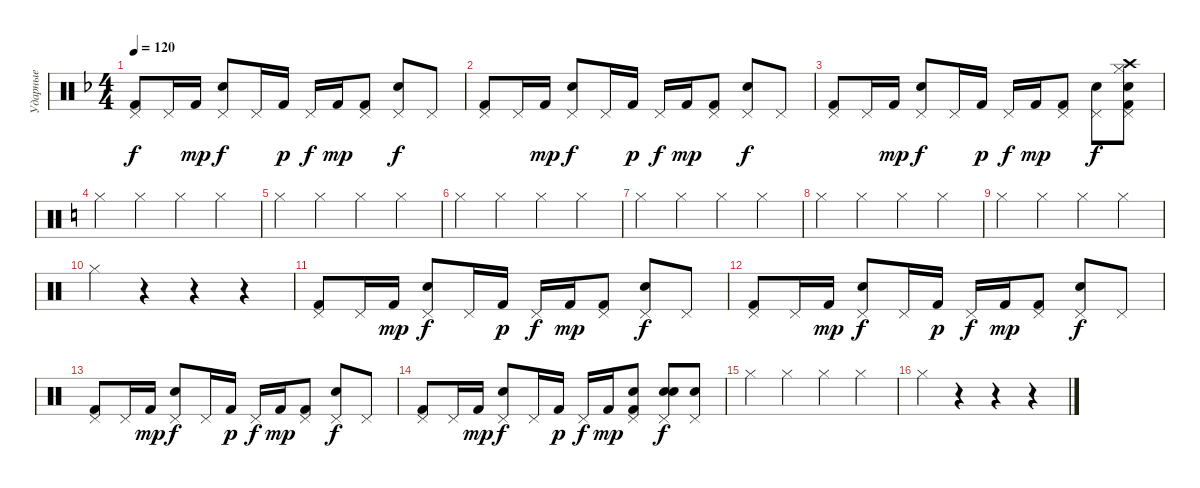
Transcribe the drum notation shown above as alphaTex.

\track ("Ударные" "Ударные") {instrument percussion}
\staff {score}
\articulation defaults
\ts (4 4)
\tempo 120
\clef neutral
\ks dminor
("Pedal Hi-Hat (hit)" "Kick (hit) 2").8{dy f} "Pedal Hi-Hat (hit)".16 "Kick (hit) 2".16{dy mp} ("Pedal Hi-Hat (hit)" "Snare (hit) 2").8{dy f} "Pedal Hi-Hat (hit)".16 "Kick (hit) 2".16{dy p} "Pedal Hi-Hat (hit)".16{dy f} "Kick (hit) 2".16{dy mp} ("Pedal Hi-Hat (hit)" "Kick (hit) 2").8 ("Pedal Hi-Hat (hit)" "Snare (hit) 2").8{dy f} "Pedal Hi-Hat (hit)".8 |
("Pedal Hi-Hat (hit)" "Kick (hit) 2").8 "Pedal Hi-Hat (hit)".16 "Kick (hit) 2".16{dy mp} ("Pedal Hi-Hat (hit)" "Snare (hit) 2").8{dy f} "Pedal Hi-Hat (hit)".16 "Kick (hit) 2".16{dy p} "Pedal Hi-Hat (hit)".16{dy f} "Kick (hit) 2".16{dy mp} ("Pedal Hi-Hat (hit)" "Kick (hit) 2").8 ("Pedal Hi-Hat (hit)" "Snare (hit) 2").8{dy f} "Pedal Hi-Hat (hit)".8 |
("Pedal Hi-Hat (hit)" "Kick (hit) 2").8 "Pedal Hi-Hat (hit)".16 "Kick (hit) 2".16{dy mp} ("Pedal Hi-Hat (hit)" "Snare (hit) 2").8{dy f} "Pedal Hi-Hat (hit)".16 "Kick (hit) 2".16{dy p} "Pedal Hi-Hat (hit)".16{dy f} "Kick (hit) 2".16{dy mp} ("Pedal Hi-Hat (hit)" "Kick (hit) 2").8 ("Pedal Hi-Hat (hit)" "Snare (hit) 2").8{dy f} ("Pedal Hi-Hat (hit)" "Crash high (hit)" "Hi-Hat (closed)" "Snare (hit) 2" "Kick (hit) 2").8 |
\ks c "Hi-Hat (closed)".4 "Hi-Hat (closed)".4 "Hi-Hat (closed)".4 "Hi-Hat (closed)".4
|
"Hi-Hat (closed)".4 "Hi-Hat (closed)".4 "Hi-Hat (closed)".4 "Hi-Hat (closed)".4 |
"Hi-Hat (closed)".4 "Hi-Hat (closed)".4 "Hi-Hat (closed)".4 "Hi-Hat (closed)".4 |
"Hi-Hat (closed)".4 "Hi-Hat (closed)".4 "Hi-Hat (closed)".4 "Hi-Hat (closed)".4 |
"Hi-Hat (closed)".4 "Hi-Hat (closed)".4 "Hi-Hat (closed)".4 "Hi-Hat (closed)".4 |
"Hi-Hat (closed)".4 "Hi-Hat (closed)".4 "Hi-Hat (closed)".4 "Hi-Hat (closed)".4 |
"Hi-Hat (closed)".4 r.4 r.4 r.4 |
("Pedal Hi-Hat (hit)" "Kick (hit) 2").8 "Pedal Hi-Hat (hit)".16 "Kick (hit) 2".16{dy mp} ("Pedal Hi-Hat (hit)" "Snare (hit) 2").8{dy f} "Pedal Hi-Hat (hit)".16 "Kick (hit) 2".16{dy p} "Pedal Hi-Hat (hit)".16{dy f} "Kick (hit) 2".16{dy mp} ("Pedal Hi-Hat (hit)" "Kick (hit) 2").8 ("Pedal Hi-Hat (hit)" "Snare (hit) 2").8{dy f} "Pedal Hi-Hat (hit)".8 |
("Pedal Hi-Hat (hit)" "Kick (hit) 2").8 "Pedal Hi-Hat (hit)".16 "Kick (hit) 2".16{dy mp} ("Pedal Hi-Hat (hit)" "Snare (hit) 2").8{dy f} "Pedal Hi-Hat (hit)".16 "Kick (hit) 2".16{dy p} "Pedal Hi-Hat (hit)".16{dy f} "Kick (hit) 2".16{dy mp} ("Pedal Hi-Hat (hit)" "Kick (hit) 2").8 ("Pedal Hi-Hat (hit)" "Snare (hit) 2").8{dy f} "Pedal Hi-Hat (hit)".8 |
("Pedal Hi-Hat (hit)" "Kick (hit) 2").8 "Pedal Hi-Hat (hit)".16 "Kick (hit) 2".16{dy mp} ("Pedal Hi-Hat (hit)" "Snare (hit) 2").8{dy f} "Pedal Hi-Hat (hit)".16 "Kick (hit) 2".16{dy p} "Pedal Hi-Hat (hit)".16{dy f} "Kick (hit) 2".16{dy mp} ("Pedal Hi-Hat (hit)" "Kick (hit) 2").8 ("Pedal Hi-Hat (hit)" "Snare (hit) 2").8{dy f} "Pedal Hi-Hat (hit)".8 |
("Pedal Hi-Hat (hit)" "Kick (hit) 2").8 "Pedal Hi-Hat (hit)".16 "Kick (hit) 2".16{dy mp} ("Pedal Hi-Hat (hit)" "Snare (hit) 2").8{dy f} "Pedal Hi-Hat (hit)".16 "Kick (hit) 2".16{dy p} "Pedal Hi-Hat (hit)".16{dy f} "Kick (hit) 2".16{dy mp} ("Pedal Hi-Hat (hit)" "Snare (hit) 2" "Kick (hit) 2").8 ("Pedal Hi-Hat (hit)" "Snare (hit) 2" "Snare (hit) 2").8{dy f} ("Pedal Hi-Hat (hit)" "Snare (hit) 2").8 |
"Hi-Hat (closed)".4 "Hi-Hat (closed)".4 "Hi-Hat (closed)".4 "Hi-Hat (closed)".4 |
"Hi-Hat (closed)".4 r.4 r.4 r.4
